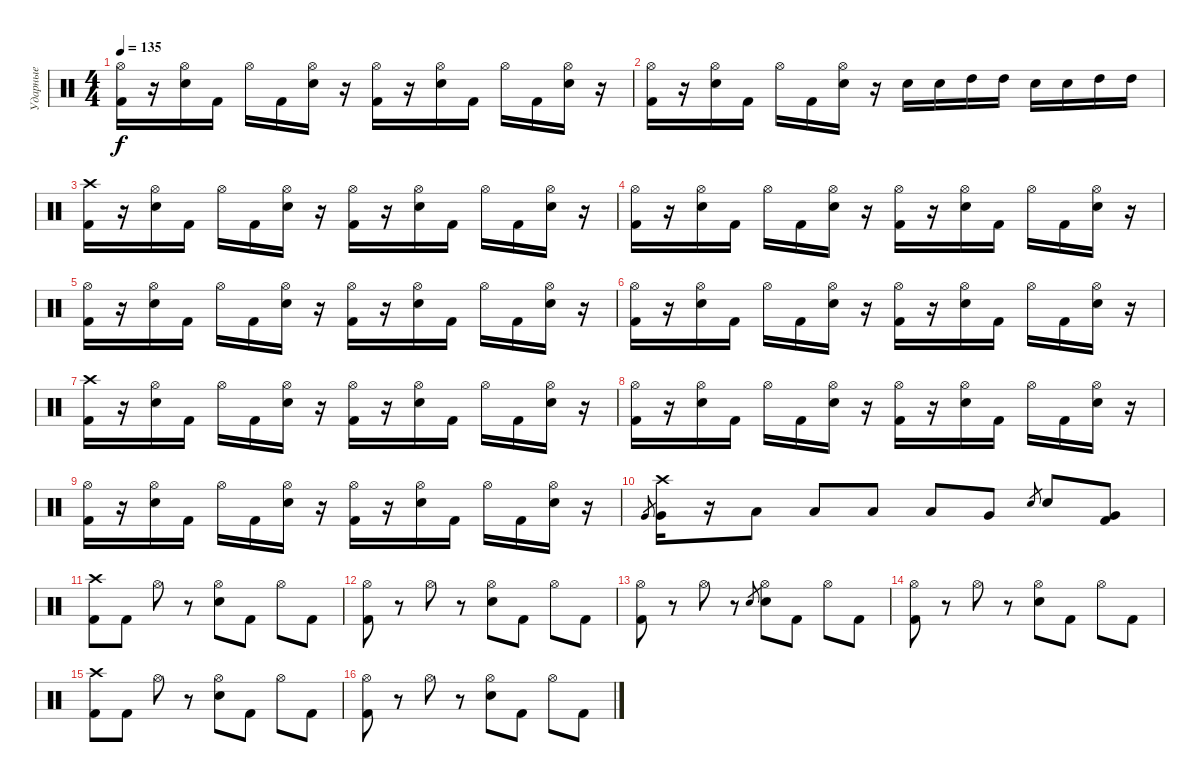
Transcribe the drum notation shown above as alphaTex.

\track ("Ударные" "Ударные") {instrument percussion}
\staff {score}
\articulation defaults
\ts (4 4)
\tempo 135
\clef neutral
\ks c
("Hi-Hat (open)" "Kick (hit) 2").16{dy f} r.16 ("Hi-Hat (open)" "Electric Snare (hit)").16 "Kick (hit) 2".16 "Hi-Hat (open)".16 "Kick (hit) 2".16 ("Hi-Hat (open)" "Electric Snare (hit)").16 r.16 ("Hi-Hat (open)" "Kick (hit) 2").16 r.16 ("Hi-Hat (open)" "Electric Snare (hit)").16 "Kick (hit) 2".16 "Hi-Hat (open)".16 "Kick (hit) 2".16 ("Hi-Hat (open)" "Electric Snare (hit)").16 r.16 |
("Hi-Hat (open)" "Kick (hit) 2").16 r.16 ("Hi-Hat (open)" "Electric Snare (hit)").16 "Kick (hit) 2".16 "Hi-Hat (open)".16 "Kick (hit) 2".16 ("Hi-Hat (open)" "Electric Snare (hit)").16 r.16 "Electric Snare (hit)".16 "Electric Snare (hit)".16 "High Tom (hit)".16 "High Tom (hit)".16 "Electric Snare (hit)".16 "Electric Snare (hit)".16 "High Tom (hit)".16 "High Tom (hit)".16 |
("Crash high (hit)" "Kick (hit) 2").16 r.16 ("Hi-Hat (open)" "Electric Snare (hit)").16 "Kick (hit) 2".16 "Hi-Hat (open)".16 "Kick (hit) 2".16 ("Hi-Hat (open)" "Electric Snare (hit)").16 r.16 ("Hi-Hat (open)" "Kick (hit) 2").16 r.16 ("Hi-Hat (open)" "Electric Snare (hit)").16 "Kick (hit) 2".16 "Hi-Hat (open)".16 "Kick (hit) 2".16 ("Hi-Hat (open)" "Electric Snare (hit)").16 r.16 |
("Hi-Hat (open)" "Kick (hit) 2").16 r.16 ("Hi-Hat (open)" "Electric Snare (hit)").16 "Kick (hit) 2".16 "Hi-Hat (open)".16 "Kick (hit) 2".16 ("Hi-Hat (open)" "Electric Snare (hit)").16 r.16 ("Hi-Hat (open)" "Kick (hit) 2").16 r.16 ("Hi-Hat (open)" "Electric Snare (hit)").16 "Kick (hit) 2".16 "Hi-Hat (open)".16 "Kick (hit) 2".16 ("Hi-Hat (open)" "Electric Snare (hit)").16 r.16 |
("Hi-Hat (open)" "Kick (hit) 2").16 r.16 ("Hi-Hat (open)" "Electric Snare (hit)").16 "Kick (hit) 2".16 "Hi-Hat (open)".16 "Kick (hit) 2".16 ("Hi-Hat (open)" "Electric Snare (hit)").16 r.16 ("Hi-Hat (open)" "Kick (hit) 2").16 r.16 ("Hi-Hat (open)" "Electric Snare (hit)").16 "Kick (hit) 2".16 "Hi-Hat (open)".16 "Kick (hit) 2".16 ("Hi-Hat (open)" "Electric Snare (hit)").16 r.16 |
("Hi-Hat (open)" "Kick (hit) 2").16 r.16 ("Hi-Hat (open)" "Electric Snare (hit)").16 "Kick (hit) 2".16 "Hi-Hat (open)".16 "Kick (hit) 2".16 ("Hi-Hat (open)" "Electric Snare (hit)").16 r.16 ("Hi-Hat (open)" "Kick (hit) 2").16 r.16 ("Hi-Hat (open)" "Electric Snare (hit)").16 "Kick (hit) 2".16 "Hi-Hat (open)".16 "Kick (hit) 2".16 ("Hi-Hat (open)" "Electric Snare (hit)").16 r.16 |
("Crash high (hit)" "Kick (hit) 2").16 r.16 ("Hi-Hat (open)" "Electric Snare (hit)").16 "Kick (hit) 2".16 "Hi-Hat (open)".16 "Kick (hit) 2".16 ("Hi-Hat (open)" "Electric Snare (hit)").16 r.16 ("Hi-Hat (open)" "Kick (hit) 2").16 r.16 ("Hi-Hat (open)" "Electric Snare (hit)").16 "Kick (hit) 2".16 "Hi-Hat (open)".16 "Kick (hit) 2".16 ("Hi-Hat (open)" "Electric Snare (hit)").16 r.16 |
("Hi-Hat (open)" "Kick (hit) 2").16 r.16 ("Hi-Hat (open)" "Electric Snare (hit)").16 "Kick (hit) 2".16 "Hi-Hat (open)".16 "Kick (hit) 2".16 ("Hi-Hat (open)" "Electric Snare (hit)").16 r.16 ("Hi-Hat (open)" "Kick (hit) 2").16 r.16 ("Hi-Hat (open)" "Electric Snare (hit)").16 "Kick (hit) 2".16 "Hi-Hat (open)".16 "Kick (hit) 2".16 ("Hi-Hat (open)" "Electric Snare (hit)").16 r.16 |
("Hi-Hat (open)" "Kick (hit) 2").16 r.16 ("Hi-Hat (open)" "Electric Snare (hit)").16 "Kick (hit) 2".16 "Hi-Hat (open)".16 "Kick (hit) 2".16 ("Hi-Hat (open)" "Electric Snare (hit)").16 r.16 ("Hi-Hat (open)" "Kick (hit) 2").16 r.16 ("Hi-Hat (open)" "Electric Snare (hit)").16 "Kick (hit) 2".16 "Hi-Hat (open)".16 "Kick (hit) 2".16 ("Hi-Hat (open)" "Electric Snare (hit)").16 r.16 |
"Very Low Tom (hit)".8{gr} ("Crash high (hit)" "Very Low Tom (hit)").16 r.16 "Low Tom (hit)".8 "Low Tom (hit)".8 "Low Tom (hit)".8 "Low Tom (hit)".8 "Very Low Tom (hit)".8 "Electric Snare (hit)".8{gr} "Electric Snare (hit)".8 ("Very Low Tom (hit)" "Kick (hit) 2").8 |
("Crash high (hit)" "Kick (hit) 2").8 "Kick (hit) 2".8 "Hi-Hat (open)".8 r.8 ("Hi-Hat (open)" "Electric Snare (hit)").8 "Kick (hit) 2".8 "Hi-Hat (open)".8 "Kick (hit) 2".8 |
("Hi-Hat (open)" "Kick (hit) 2").8 r.8 "Hi-Hat (open)".8 r.8 ("Hi-Hat (open)" "Electric Snare (hit)").8 "Kick (hit) 2".8 "Hi-Hat (open)".8 "Kick (hit) 2".8 |
("Hi-Hat (open)" "Kick (hit) 2").8 r.8 "Hi-Hat (open)".8 r.8 "Electric Snare (hit)".8{gr} ("Hi-Hat (open)" "Electric Snare (hit)").8 "Kick (hit) 2".8 "Hi-Hat (open)".8 "Kick (hit) 2".8 |
("Hi-Hat (open)" "Kick (hit) 2").8 r.8 "Hi-Hat (open)".8 r.8 ("Hi-Hat (open)" "Electric Snare (hit)").8 "Kick (hit) 2".8 "Hi-Hat (open)".8 "Kick (hit) 2".8 |
("Crash high (hit)" "Kick (hit) 2").8 "Kick (hit) 2".8 "Hi-Hat (open)".8 r.8 ("Hi-Hat (open)" "Electric Snare (hit)").8 "Kick (hit) 2".8 "Hi-Hat (open)".8 "Kick (hit) 2".8 |
("Hi-Hat (open)" "Kick (hit) 2").8 r.8 "Hi-Hat (open)".8 r.8 ("Hi-Hat (open)" "Electric Snare (hit)").8 "Kick (hit) 2".8 "Hi-Hat (open)".8 "Kick (hit) 2".8
